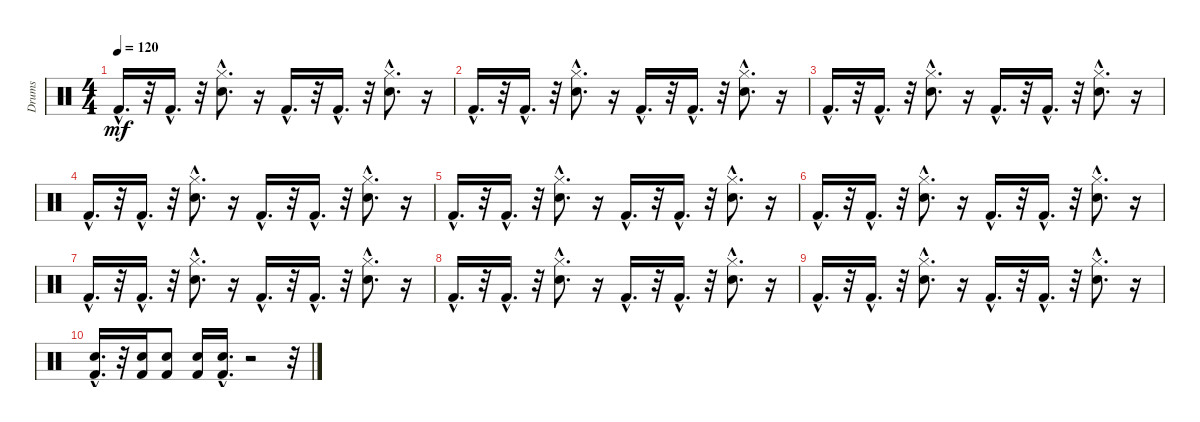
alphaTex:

\track ("Drums" "Drums") {instrument percussion}
\staff {score}
\articulation defaults
\ts (4 4)
\tempo 120
\clef neutral
\ks c "Kick (hit) 2"{hac}.16{d dy mf}
r.32 "Kick (hit) 2"{hac}.16{d} r.32 ("Hi-Hat (closed)"{hac} "Snare (hit) 2"{hac}).8{d} r.16 "Kick (hit) 2"{hac}.16{d} r.32 "Kick (hit) 2"{hac}.16{d} r.32 ("Snare (hit) 2"{hac} "Hi-Hat (closed)"{hac}).8{d} r.16 |
"Kick (hit) 2"{hac}.16{d} r.32 "Kick (hit) 2"{hac}.16{d} r.32 ("Snare (hit) 2"{hac} "Hi-Hat (closed)"{hac}).8{d} r.16 "Kick (hit) 2"{hac}.16{d} r.32 "Kick (hit) 2"{hac}.16{d} r.32 ("Snare (hit) 2"{hac} "Hi-Hat (closed)"{hac}).8{d} r.16 |
"Kick (hit) 2"{hac}.16{d} r.32 "Kick (hit) 2"{hac}.16{d} r.32 ("Snare (hit) 2"{hac} "Hi-Hat (closed)"{hac}).8{d} r.16 "Kick (hit) 2"{hac}.16{d} r.32 "Kick (hit) 2"{hac}.16{d} r.32 ("Snare (hit) 2"{hac} "Hi-Hat (closed)"{hac}).8{d} r.16 |
"Kick (hit) 2"{hac}.16{d} r.32 "Kick (hit) 2"{hac}.16{d} r.32 ("Snare (hit) 2"{hac} "Hi-Hat (closed)"{hac}).8{d} r.16 "Kick (hit) 2"{hac}.16{d} r.32 "Kick (hit) 2"{hac}.16{d} r.32 ("Hi-Hat (closed)"{hac} "Snare (hit) 2"{hac}).8{d} r.16 |
"Kick (hit) 2"{hac}.16{d} r.32 "Kick (hit) 2"{hac}.16{d} r.32 ("Hi-Hat (closed)"{hac} "Snare (hit) 2"{hac}).8{d} r.16 "Kick (hit) 2"{hac}.16{d} r.32 "Kick (hit) 2"{hac}.16{d} r.32 ("Snare (hit) 2"{hac} "Hi-Hat (closed)"{hac}).8{d} r.16 |
"Kick (hit) 2"{hac}.16{d} r.32 "Kick (hit) 2"{hac}.16{d} r.32 ("Snare (hit) 2"{hac} "Hi-Hat (closed)"{hac}).8{d} r.16 "Kick (hit) 2"{hac}.16{d} r.32 "Kick (hit) 2"{hac}.16{d} r.32 ("Snare (hit) 2"{hac} "Hi-Hat (closed)"{hac}).8{d} r.16 |
"Kick (hit) 2"{hac}.16{d} r.32 "Kick (hit) 2"{hac}.16{d} r.32 ("Snare (hit) 2"{hac} "Hi-Hat (closed)"{hac}).8{d} r.16 "Kick (hit) 2"{hac}.16{d} r.32 "Kick (hit) 2"{hac}.16{d} r.32 ("Snare (hit) 2"{hac} "Hi-Hat (closed)"{hac}).8{d} r.16 |
"Kick (hit) 2"{hac}.16{d} r.32 "Kick (hit) 2"{hac}.16{d} r.32 ("Snare (hit) 2"{hac} "Hi-Hat (closed)"{hac}).8{d} r.16 "Kick (hit) 2"{hac}.16{d} r.32 "Kick (hit) 2"{hac}.16{d} r.32 ("Hi-Hat (closed)"{hac} "Snare (hit) 2"{hac}).8{d} r.16 |
"Kick (hit) 2"{hac}.16{d} r.32 "Kick (hit) 2"{hac}.16{d} r.32 ("Hi-Hat (closed)"{hac} "Snare (hit) 2"{hac}).8{d} r.16 "Kick (hit) 2"{hac}.16{d} r.32 "Kick (hit) 2"{hac}.16{d} r.32 ("Hi-Hat (closed)"{hac} "Snare (hit) 2"{hac}).8{d} r.16 |
("Kick (hit) 2"{hac} "Snare (hit) 2"{hac}).16{d} r.32 ("Kick (hit) 2" "Snare (hit) 2").16 ("Kick (hit) 2" "Snare (hit) 2").8 ("Kick (hit) 2" "Snare (hit) 2").16 ("Snare (hit) 2"{hac} "Kick (hit) 2"{hac}).16{d} r.2 r.32
